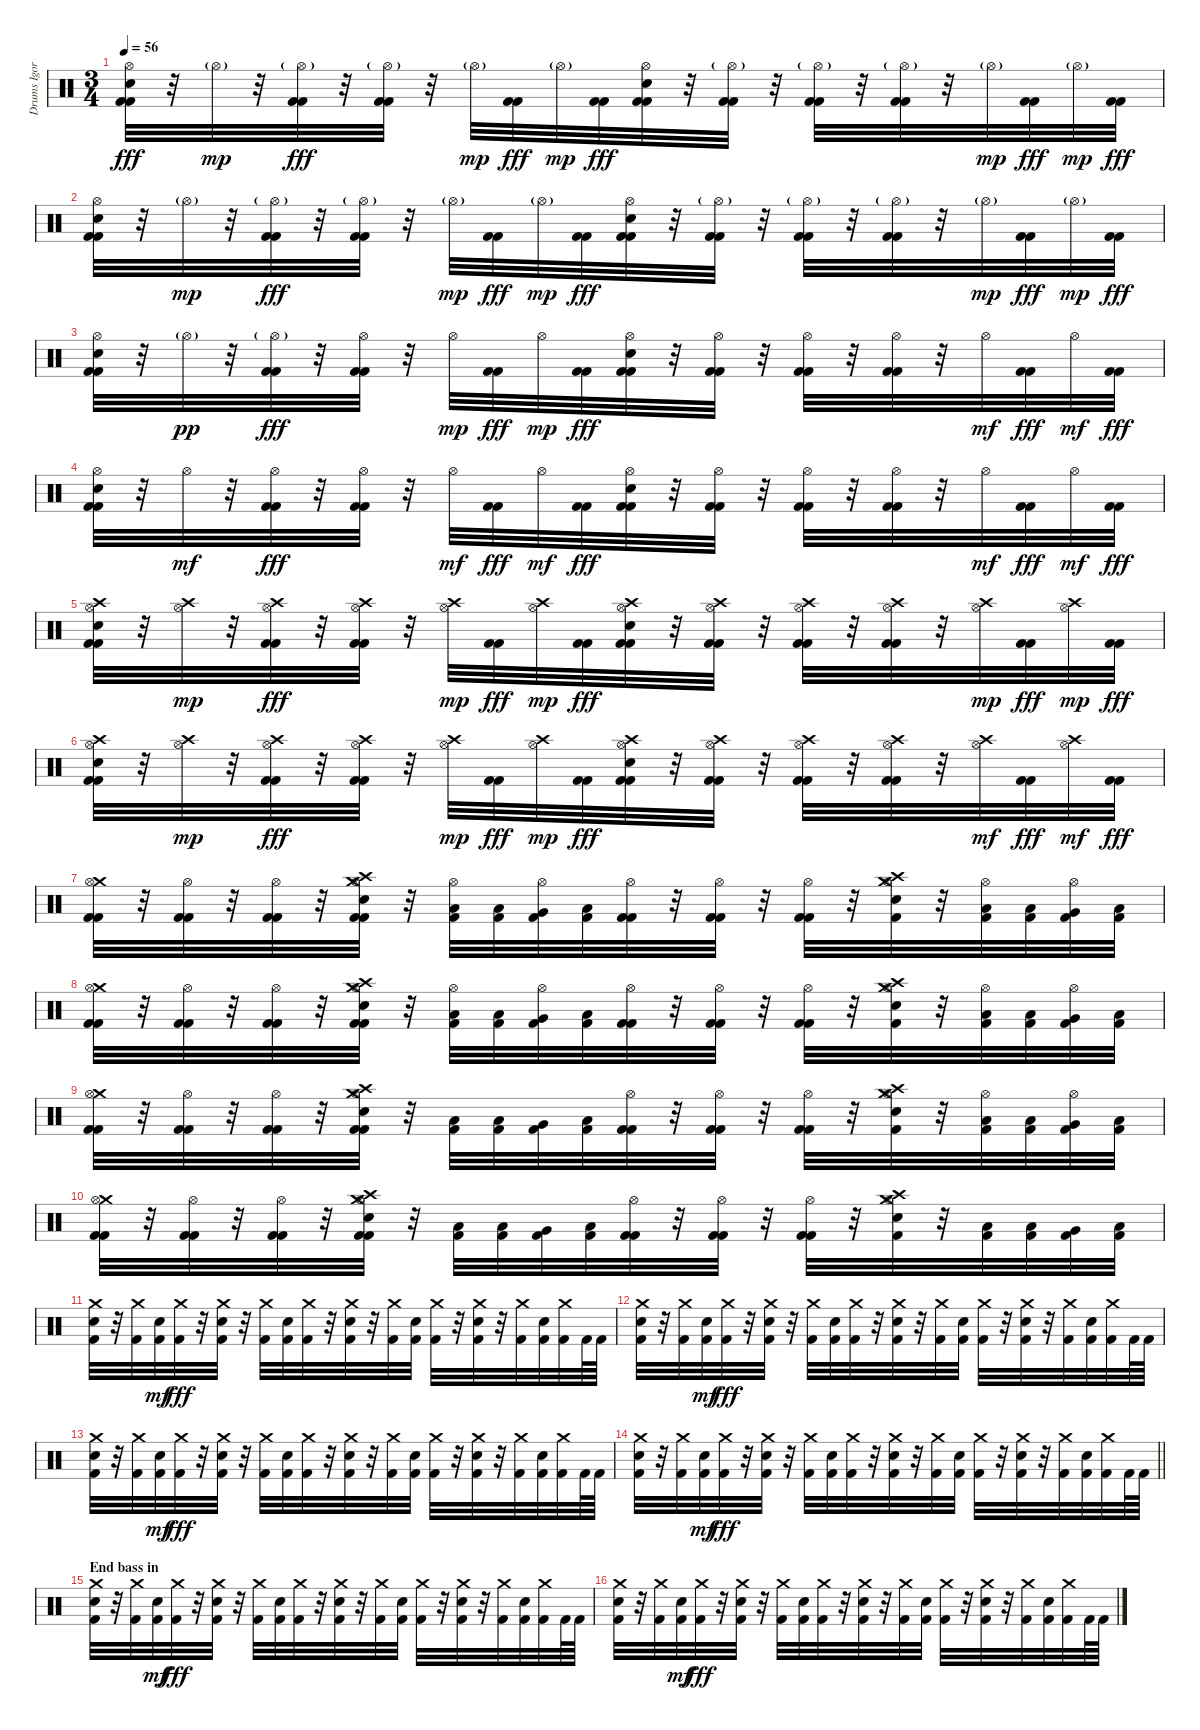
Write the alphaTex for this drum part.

\track ("Drums Igor" "Drums Igor") {instrument percussion}
\staff {score}
\articulation defaults
\ts (3 4)
\tempo 56
\clef neutral
\ks c
("Hi-Hat (open)" "Electric Snare (hit)" "Kick (hit) 2" "Kick (hit) 2").32{dy fff} r.32 "Hi-Hat (open)"{g}.32{dy mp} r.32 ("Hi-Hat (open)"{g} "Kick (hit) 2" "Kick (hit) 2").32{dy fff} r.32 ("Hi-Hat (open)"{g} "Kick (hit) 2" "Kick (hit) 2").32 r.32 "Hi-Hat (open)"{g}.32{dy mp} ("Kick (hit) 2" "Kick (hit) 2").32{dy fff} "Hi-Hat (open)"{g}.32{dy mp} ("Kick (hit) 2" "Kick (hit) 2").32{dy fff} ("Hi-Hat (open)" "Electric Snare (hit)" "Kick (hit) 2" "Kick (hit) 2").32 r.32 ("Hi-Hat (open)"{g} "Kick (hit) 2" "Kick (hit) 2").32 r.32 ("Hi-Hat (open)"{g} "Kick (hit) 2" "Kick (hit) 2").32 r.32 ("Hi-Hat (open)"{g} "Kick (hit) 2" "Kick (hit) 2").32 r.32 "Hi-Hat (open)"{g}.32{dy mp} ("Kick (hit) 2" "Kick (hit) 2").32{dy fff} "Hi-Hat (open)"{g}.32{dy mp} ("Kick (hit) 2" "Kick (hit) 2").32{dy fff} |
("Hi-Hat (open)" "Electric Snare (hit)" "Kick (hit) 2" "Kick (hit) 2").32 r.32 "Hi-Hat (open)"{g}.32{dy mp} r.32 ("Hi-Hat (open)"{g} "Kick (hit) 2" "Kick (hit) 2").32{dy fff} r.32 ("Hi-Hat (open)"{g} "Kick (hit) 2" "Kick (hit) 2").32 r.32 "Hi-Hat (open)"{g}.32{dy mp} ("Kick (hit) 2" "Kick (hit) 2").32{dy fff} "Hi-Hat (open)"{g}.32{dy mp} ("Kick (hit) 2" "Kick (hit) 2").32{dy fff} ("Hi-Hat (open)" "Electric Snare (hit)" "Kick (hit) 2" "Kick (hit) 2").32 r.32 ("Hi-Hat (open)"{g} "Kick (hit) 2" "Kick (hit) 2").32 r.32 ("Hi-Hat (open)"{g} "Kick (hit) 2" "Kick (hit) 2").32 r.32 ("Hi-Hat (open)"{g} "Kick (hit) 2" "Kick (hit) 2").32 r.32 "Hi-Hat (open)"{g}.32{dy mp} ("Kick (hit) 2" "Kick (hit) 2").32{dy fff} "Hi-Hat (open)"{g}.32{dy mp} ("Kick (hit) 2" "Kick (hit) 2").32{dy fff} |
("Hi-Hat (open)" "Electric Snare (hit)" "Kick (hit) 2" "Kick (hit) 2").32 r.32 "Hi-Hat (open)"{g}.32{dy pp} r.32 ("Hi-Hat (open)"{g} "Kick (hit) 2" "Kick (hit) 2").32{dy fff} r.32 ("Hi-Hat (open)" "Kick (hit) 2" "Kick (hit) 2").32 r.32 "Hi-Hat (open)".32{dy mp} ("Kick (hit) 2" "Kick (hit) 2").32{dy fff} "Hi-Hat (open)".32{dy mp} ("Kick (hit) 2" "Kick (hit) 2").32{dy fff} ("Hi-Hat (open)" "Electric Snare (hit)" "Kick (hit) 2" "Kick (hit) 2").32 r.32 ("Hi-Hat (open)" "Kick (hit) 2" "Kick (hit) 2").32 r.32 ("Hi-Hat (open)" "Kick (hit) 2" "Kick (hit) 2").32 r.32 ("Hi-Hat (open)" "Kick (hit) 2" "Kick (hit) 2").32 r.32 "Hi-Hat (open)".32{dy mf} ("Kick (hit) 2" "Kick (hit) 2").32{dy fff} "Hi-Hat (open)".32{dy mf} ("Kick (hit) 2" "Kick (hit) 2").32{dy fff} |
("Hi-Hat (open)" "Electric Snare (hit)" "Kick (hit) 2" "Kick (hit) 2").32 r.32 "Hi-Hat (open)".32{dy mf} r.32 ("Hi-Hat (open)" "Kick (hit) 2" "Kick (hit) 2").32{dy fff} r.32 ("Hi-Hat (open)" "Kick (hit) 2" "Kick (hit) 2").32 r.32 "Hi-Hat (open)".32{dy mf} ("Kick (hit) 2" "Kick (hit) 2").32{dy fff} "Hi-Hat (open)".32{dy mf} ("Kick (hit) 2" "Kick (hit) 2").32{dy fff} ("Hi-Hat (open)" "Electric Snare (hit)" "Kick (hit) 2" "Kick (hit) 2").32 r.32 ("Hi-Hat (open)" "Kick (hit) 2" "Kick (hit) 2").32 r.32 ("Hi-Hat (open)" "Kick (hit) 2" "Kick (hit) 2").32 r.32 ("Hi-Hat (open)" "Kick (hit) 2" "Kick (hit) 2").32 r.32 "Hi-Hat (open)".32{dy mf} ("Kick (hit) 2" "Kick (hit) 2").32{dy fff} "Hi-Hat (open)".32{dy mf} ("Kick (hit) 2" "Kick (hit) 2").32{dy fff} |
("Crash high (hit)" "Hi-Hat (open)" "Electric Snare (hit)" "Kick (hit) 2" "Kick (hit) 2").32 r.32 ("Crash high (hit)" "Hi-Hat (open)").32{dy mp} r.32 ("Crash high (hit)" "Hi-Hat (open)" "Kick (hit) 2" "Kick (hit) 2").32{dy fff} r.32 ("Crash high (hit)" "Hi-Hat (open)" "Kick (hit) 2" "Kick (hit) 2").32 r.32 ("Crash high (hit)" "Hi-Hat (open)").32{dy mp} ("Kick (hit) 2" "Kick (hit) 2").32{dy fff} ("Crash high (hit)" "Hi-Hat (open)").32{dy mp} ("Kick (hit) 2" "Kick (hit) 2").32{dy fff} ("Crash high (hit)" "Hi-Hat (open)" "Electric Snare (hit)" "Kick (hit) 2" "Kick (hit) 2").32 r.32 ("Crash high (hit)" "Hi-Hat (open)" "Kick (hit) 2" "Kick (hit) 2").32 r.32 ("Crash high (hit)" "Hi-Hat (open)" "Kick (hit) 2" "Kick (hit) 2").32 r.32 ("Crash high (hit)" "Hi-Hat (open)" "Kick (hit) 2" "Kick (hit) 2").32 r.32 ("Crash high (hit)" "Hi-Hat (open)").32{dy mp} ("Kick (hit) 2" "Kick (hit) 2").32{dy fff} ("Crash high (hit)" "Hi-Hat (open)").32{dy mp} ("Kick (hit) 2" "Kick (hit) 2").32{dy fff} |
("Crash high (hit)" "Hi-Hat (open)" "Electric Snare (hit)" "Kick (hit) 2" "Kick (hit) 2").32 r.32 ("Crash high (hit)" "Hi-Hat (open)").32{dy mp} r.32 ("Crash high (hit)" "Hi-Hat (open)" "Kick (hit) 2" "Kick (hit) 2").32{dy fff} r.32 ("Crash high (hit)" "Hi-Hat (open)" "Kick (hit) 2" "Kick (hit) 2").32 r.32 ("Crash high (hit)" "Hi-Hat (open)").32{dy mp} ("Kick (hit) 2" "Kick (hit) 2").32{dy fff} ("Crash high (hit)" "Hi-Hat (open)").32{dy mp} ("Kick (hit) 2" "Kick (hit) 2").32{dy fff} ("Crash high (hit)" "Hi-Hat (open)" "Electric Snare (hit)" "Kick (hit) 2" "Kick (hit) 2").32 r.32 ("Crash high (hit)" "Hi-Hat (open)" "Kick (hit) 2" "Kick (hit) 2").32 r.32 ("Crash high (hit)" "Hi-Hat (open)" "Kick (hit) 2" "Kick (hit) 2").32 r.32 ("Crash high (hit)" "Hi-Hat (open)" "Kick (hit) 2" "Kick (hit) 2").32 r.32 ("Crash high (hit)" "Hi-Hat (open)").32{dy mf} ("Kick (hit) 2" "Kick (hit) 2").32{dy fff} ("Crash high (hit)" "Hi-Hat (open)").32{dy mf} ("Kick (hit) 2" "Kick (hit) 2").32{dy fff} |
("Crash medium (hit)" "Hi-Hat (open)" "Kick (hit) 2" "Kick (hit) 2").32 r.32 ("Hi-Hat (open)" "Kick (hit) 2" "Kick (hit) 2").32 r.32 ("Hi-Hat (open)" "Kick (hit) 2" "Kick (hit) 2").32 r.32 ("Crash medium (hit)" "Hi-Hat (open)" "Electric Snare (hit)" "Crash high (hit)" "Kick (hit) 2" "Kick (hit) 2").32 r.32 ("Hi-Hat (open)" "Low Tom (hit)" "Kick (hit) 2").32 ("Low Tom (hit)" "Kick (hit) 2").32 ("Hi-Hat (open)" "Very Low Tom (hit)" "Kick (hit) 2").32 ("Low Floor Tom (hit)" "Kick (hit) 2").32 ("Hi-Hat (open)" "Kick (hit) 2" "Kick (hit) 2").32 r.32 ("Hi-Hat (open)" "Kick (hit) 2" "Kick (hit) 2").32 r.32 ("Hi-Hat (open)" "Kick (hit) 2" "Kick (hit) 2").32 r.32 ("Crash medium (hit)" "Hi-Hat (open)" "Crash high (hit)" "Electric Snare (hit)" "Kick (hit) 2").32 r.32 ("Hi-Hat (open)" "Low Tom (hit)" "Kick (hit) 2").32 ("Low Tom (hit)" "Kick (hit) 2").32 ("Hi-Hat (open)" "Very Low Tom (hit)" "Kick (hit) 2").32 ("Low Floor Tom (hit)" "Kick (hit) 2").32 |
("Crash medium (hit)" "Hi-Hat (open)" "Kick (hit) 2" "Kick (hit) 2").32 r.32 ("Hi-Hat (open)" "Kick (hit) 2" "Kick (hit) 2").32 r.32 ("Hi-Hat (open)" "Kick (hit) 2" "Kick (hit) 2").32 r.32 ("Crash medium (hit)" "Hi-Hat (open)" "Electric Snare (hit)" "Crash high (hit)" "Kick (hit) 2" "Kick (hit) 2").32 r.32 ("Hi-Hat (open)" "Low Tom (hit)" "Kick (hit) 2").32 ("Low Tom (hit)" "Kick (hit) 2").32 ("Hi-Hat (open)" "Very Low Tom (hit)" "Kick (hit) 2").32 ("Low Floor Tom (hit)" "Kick (hit) 2").32 ("Hi-Hat (open)" "Kick (hit) 2" "Kick (hit) 2").32 r.32 ("Hi-Hat (open)" "Kick (hit) 2" "Kick (hit) 2").32 r.32 ("Hi-Hat (open)" "Kick (hit) 2" "Kick (hit) 2").32 r.32 ("Crash medium (hit)" "Hi-Hat (open)" "Crash high (hit)" "Electric Snare (hit)" "Kick (hit) 2").32 r.32 ("Hi-Hat (open)" "Low Tom (hit)" "Kick (hit) 2").32 ("Low Tom (hit)" "Kick (hit) 2").32 ("Hi-Hat (open)" "Very Low Tom (hit)" "Kick (hit) 2").32 ("Low Floor Tom (hit)" "Kick (hit) 2").32 |
("Crash medium (hit)" "Hi-Hat (open)" "Kick (hit) 2" "Kick (hit) 2").32 r.32 ("Hi-Hat (open)" "Kick (hit) 2" "Kick (hit) 2").32 r.32 ("Hi-Hat (open)" "Kick (hit) 2" "Kick (hit) 2").32 r.32 ("Crash medium (hit)" "Hi-Hat (open)" "Electric Snare (hit)" "Crash high (hit)" "Kick (hit) 2" "Kick (hit) 2").32 r.32 ("Low Tom (hit)" "Kick (hit) 2").32 ("Low Tom (hit)" "Kick (hit) 2").32 ("Very Low Tom (hit)" "Kick (hit) 2").32 ("Low Floor Tom (hit)" "Kick (hit) 2").32 ("Hi-Hat (open)" "Kick (hit) 2" "Kick (hit) 2").32 r.32 ("Hi-Hat (open)" "Kick (hit) 2" "Kick (hit) 2").32 r.32 ("Hi-Hat (open)" "Kick (hit) 2" "Kick (hit) 2").32 r.32 ("Crash medium (hit)" "Hi-Hat (open)" "Crash high (hit)" "Electric Snare (hit)" "Kick (hit) 2").32 r.32 ("Hi-Hat (open)" "Low Tom (hit)" "Kick (hit) 2").32 ("Low Tom (hit)" "Kick (hit) 2").32 ("Hi-Hat (open)" "Very Low Tom (hit)" "Kick (hit) 2").32 ("Low Floor Tom (hit)" "Kick (hit) 2").32 |
("Crash medium (hit)" "Hi-Hat (open)" "Kick (hit) 2" "Kick (hit) 2").32 r.32 ("Hi-Hat (open)" "Kick (hit) 2" "Kick (hit) 2").32 r.32 ("Hi-Hat (open)" "Kick (hit) 2" "Kick (hit) 2").32 r.32 ("Crash medium (hit)" "Hi-Hat (open)" "Electric Snare (hit)" "Crash high (hit)" "Kick (hit) 2" "Kick (hit) 2").32 r.32 ("Low Tom (hit)" "Kick (hit) 2").32 ("Low Tom (hit)" "Kick (hit) 2").32 ("Very Low Tom (hit)" "Kick (hit) 2").32 ("Low Floor Tom (hit)" "Kick (hit) 2").32 ("Hi-Hat (open)" "Kick (hit) 2" "Kick (hit) 2").32 r.32 ("Hi-Hat (open)" "Kick (hit) 2" "Kick (hit) 2").32 r.32 ("Hi-Hat (open)" "Kick (hit) 2" "Kick (hit) 2").32 r.32 ("Crash medium (hit)" "Hi-Hat (open)" "Crash high (hit)" "Electric Snare (hit)" "Kick (hit) 2").32 r.32 ("Low Tom (hit)" "Kick (hit) 2").32 ("Low Tom (hit)" "Kick (hit) 2").32 ("Very Low Tom (hit)" "Kick (hit) 2").32 ("Low Floor Tom (hit)" "Kick (hit) 2").32 |
("Crash medium (hit)" "Electric Snare (hit)" "Kick (hit) 2").32 r.32 ("Crash medium (hit)" "Kick (hit) 2").32 ("Electric Snare (hit)" "Kick (hit) 2").32{dy mf} ("Crash medium (hit)" "Kick (hit) 2").32{dy fff} r.32 ("Crash medium (hit)" "Electric Snare (hit)" "Kick (hit) 2").32 r.32 ("Crash medium (hit)" "Kick (hit) 2").32 ("Electric Snare (hit)" "Kick (hit) 2").32 ("Crash medium (hit)" "Kick (hit) 2").32 r.32 ("Crash medium (hit)" "Electric Snare (hit)" "Kick (hit) 2").32 r.32 ("Crash medium (hit)" "Kick (hit) 2").32 ("Electric Snare (hit)" "Kick (hit) 2").32 ("Crash medium (hit)" "Kick (hit) 2").32 r.32 ("Crash medium (hit)" "Electric Snare (hit)" "Kick (hit) 2").32 r.32 ("Crash medium (hit)" "Kick (hit) 2").32 ("Electric Snare (hit)" "Kick (hit) 2").32 ("Crash medium (hit)" "Kick (hit) 2").32 "Kick (hit) 2".64 "Kick (hit) 2".64 |
("Crash medium (hit)" "Electric Snare (hit)" "Kick (hit) 2").32 r.32 ("Crash medium (hit)" "Kick (hit) 2").32 ("Electric Snare (hit)" "Kick (hit) 2").32{dy mf} ("Crash medium (hit)" "Kick (hit) 2").32{dy fff} r.32 ("Crash medium (hit)" "Electric Snare (hit)" "Kick (hit) 2").32 r.32 ("Crash medium (hit)" "Kick (hit) 2").32 ("Electric Snare (hit)" "Kick (hit) 2").32 ("Crash medium (hit)" "Kick (hit) 2").32 r.32 ("Crash medium (hit)" "Electric Snare (hit)" "Kick (hit) 2").32 r.32 ("Crash medium (hit)" "Kick (hit) 2").32 ("Electric Snare (hit)" "Kick (hit) 2").32 ("Crash medium (hit)" "Kick (hit) 2").32 r.32 ("Crash medium (hit)" "Electric Snare (hit)" "Kick (hit) 2").32 r.32 ("Crash medium (hit)" "Kick (hit) 2").32 ("Electric Snare (hit)" "Kick (hit) 2").32 ("Crash medium (hit)" "Kick (hit) 2").32 "Kick (hit) 2".64 "Kick (hit) 2".64 |
("Crash medium (hit)" "Electric Snare (hit)" "Kick (hit) 2").32 r.32 ("Crash medium (hit)" "Kick (hit) 2").32 ("Electric Snare (hit)" "Kick (hit) 2").32{dy mf} ("Crash medium (hit)" "Kick (hit) 2").32{dy fff} r.32 ("Crash medium (hit)" "Electric Snare (hit)" "Kick (hit) 2").32 r.32 ("Crash medium (hit)" "Kick (hit) 2").32 ("Electric Snare (hit)" "Kick (hit) 2").32 ("Crash medium (hit)" "Kick (hit) 2").32 r.32 ("Crash medium (hit)" "Electric Snare (hit)" "Kick (hit) 2").32 r.32 ("Crash medium (hit)" "Kick (hit) 2").32 ("Electric Snare (hit)" "Kick (hit) 2").32 ("Crash medium (hit)" "Kick (hit) 2").32 r.32 ("Crash medium (hit)" "Electric Snare (hit)" "Kick (hit) 2").32 r.32 ("Crash medium (hit)" "Kick (hit) 2").32 ("Electric Snare (hit)" "Kick (hit) 2").32 ("Crash medium (hit)" "Kick (hit) 2").32 "Kick (hit) 2".64 "Kick (hit) 2".64 |
\barLineRight lightlight
("Crash medium (hit)" "Electric Snare (hit)" "Kick (hit) 2").32 r.32 ("Crash medium (hit)" "Kick (hit) 2").32 ("Electric Snare (hit)" "Kick (hit) 2").32{dy mf} ("Crash medium (hit)" "Kick (hit) 2").32{dy fff} r.32 ("Crash medium (hit)" "Electric Snare (hit)" "Kick (hit) 2").32 r.32 ("Crash medium (hit)" "Kick (hit) 2").32 ("Electric Snare (hit)" "Kick (hit) 2").32 ("Crash medium (hit)" "Kick (hit) 2").32 r.32 ("Crash medium (hit)" "Electric Snare (hit)" "Kick (hit) 2").32 r.32 ("Crash medium (hit)" "Kick (hit) 2").32 ("Electric Snare (hit)" "Kick (hit) 2").32 ("Crash medium (hit)" "Kick (hit) 2").32 r.32 ("Crash medium (hit)" "Electric Snare (hit)" "Kick (hit) 2").32 r.32 ("Crash medium (hit)" "Kick (hit) 2").32 ("Electric Snare (hit)" "Kick (hit) 2").32 ("Crash medium (hit)" "Kick (hit) 2").32 "Kick (hit) 2".64 "Kick (hit) 2".64 |
\section ("" "End bass in")
("Crash medium (hit)" "Electric Snare (hit)" "Kick (hit) 2").32 r.32 ("Crash medium (hit)" "Kick (hit) 2").32 ("Electric Snare (hit)" "Kick (hit) 2").32{dy mf} ("Crash medium (hit)" "Kick (hit) 2").32{dy fff} r.32 ("Crash medium (hit)" "Electric Snare (hit)" "Kick (hit) 2").32 r.32 ("Crash medium (hit)" "Kick (hit) 2").32 ("Electric Snare (hit)" "Kick (hit) 2").32 ("Crash medium (hit)" "Kick (hit) 2").32 r.32 ("Crash medium (hit)" "Electric Snare (hit)" "Kick (hit) 2").32 r.32 ("Crash medium (hit)" "Kick (hit) 2").32 ("Electric Snare (hit)" "Kick (hit) 2").32 ("Crash medium (hit)" "Kick (hit) 2").32 r.32 ("Crash medium (hit)" "Electric Snare (hit)" "Kick (hit) 2").32 r.32 ("Crash medium (hit)" "Kick (hit) 2").32 ("Electric Snare (hit)" "Kick (hit) 2").32 ("Crash medium (hit)" "Kick (hit) 2").32 "Kick (hit) 2".64 "Kick (hit) 2".64 |
("Crash medium (hit)" "Electric Snare (hit)" "Kick (hit) 2").32 r.32 ("Crash medium (hit)" "Kick (hit) 2").32 ("Electric Snare (hit)" "Kick (hit) 2").32{dy mf} ("Crash medium (hit)" "Kick (hit) 2").32{dy fff} r.32 ("Crash medium (hit)" "Electric Snare (hit)" "Kick (hit) 2").32 r.32 ("Crash medium (hit)" "Kick (hit) 2").32 ("Electric Snare (hit)" "Kick (hit) 2").32 ("Crash medium (hit)" "Kick (hit) 2").32 r.32 ("Crash medium (hit)" "Electric Snare (hit)" "Kick (hit) 2").32 r.32 ("Crash medium (hit)" "Kick (hit) 2").32 ("Electric Snare (hit)" "Kick (hit) 2").32 ("Crash medium (hit)" "Kick (hit) 2").32 r.32 ("Crash medium (hit)" "Electric Snare (hit)" "Kick (hit) 2").32 r.32 ("Crash medium (hit)" "Kick (hit) 2").32 ("Electric Snare (hit)" "Kick (hit) 2").32 ("Crash medium (hit)" "Kick (hit) 2").32 "Kick (hit) 2".64 "Kick (hit) 2".64
